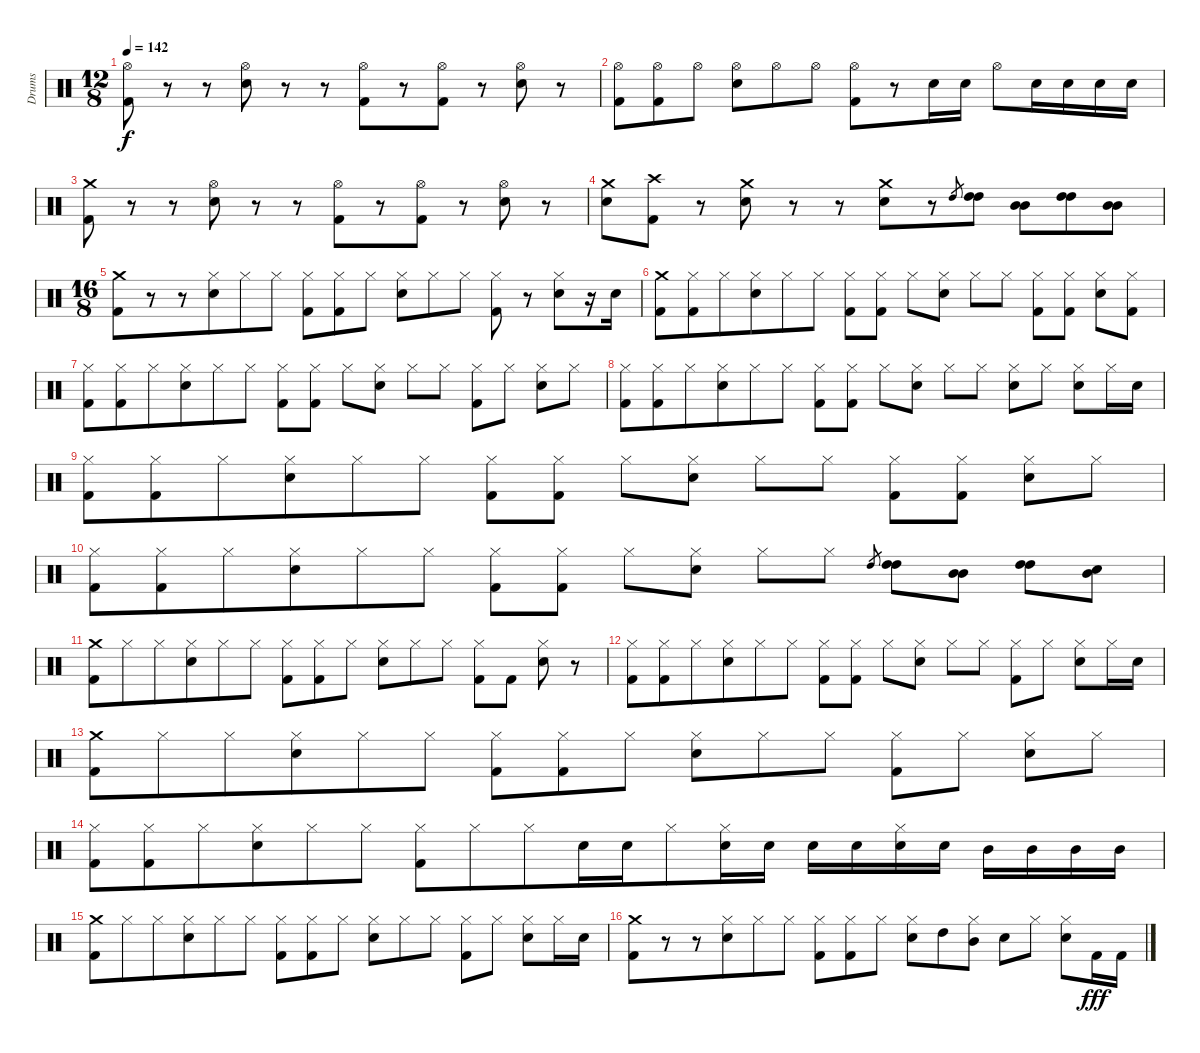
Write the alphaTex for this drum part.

\track ("Drums" "Drums") {instrument percussion}
\staff {score}
\articulation defaults
\ts (12 8)
\tempo 142
\clef neutral
\ks c
("Hi-Hat (open)" "Kick (hit) 2").8{dy f} r.8 r.8 ("Hi-Hat (open)" "Electric Snare (hit)").8 r.8 r.8 ("Hi-Hat (open)" "Kick (hit) 2").8{beam merge} r.8{beam split} ("Hi-Hat (open)" "Kick (hit) 2").8 r.8 ("Hi-Hat (open)" "Electric Snare (hit)").8 r.8 |
("Hi-Hat (open)" "Kick (hit) 2").8 ("Hi-Hat (open)" "Kick (hit) 2").8 "Hi-Hat (open)".8 ("Hi-Hat (open)" "Electric Snare (hit)").8 "Hi-Hat (open)".8 "Hi-Hat (open)".8 ("Hi-Hat (open)" "Kick (hit) 2").8{beam merge} r.8 "Electric Snare (hit)".16 "Electric Snare (hit)".16 "Hi-Hat (open)".8 "Electric Snare (hit)".16 "Electric Snare (hit)".16 "Electric Snare (hit)".16 "Electric Snare (hit)".16 |
("Crash medium (hit)" "Kick (hit) 2").8 r.8 r.8 ("Hi-Hat (open)" "Electric Snare (hit)").8 r.8 r.8 ("Hi-Hat (open)" "Kick (hit) 2").8{beam merge} r.8{beam split} ("Hi-Hat (open)" "Kick (hit) 2").8 r.8 ("Hi-Hat (open)" "Electric Snare (hit)").8 r.8 |
("Crash medium (hit)" "Electric Snare (hit)").8 ("Crash high (hit)" "Kick (hit) 2").8 r.8 ("Crash medium (hit)" "Electric Snare (hit)").8 r.8 r.8 ("Crash medium (hit)" "Electric Snare (hit)").8{beam merge} r.8 "High Tom (hit)".8{gr beam split} ("High Tom (hit)" "High Tom (hit)").8 ("Mid Tom (hit)" "Mid Tom (hit)").8 ("High Tom (hit)" "High Tom (hit)").8 ("Mid Tom (hit)" "Mid Tom (hit)").8 |
\ts (16 8)
("Crash medium (hit)" "Kick (hit) 2").8{beam merge} r.8{beam merge} r.8 ("Hi-Hat (closed)" "Electric Snare (hit)").8{beam merge} "Hi-Hat (closed)".8{beam merge} "Hi-Hat (closed)".8 ("Hi-Hat (closed)" "Kick (hit) 2").8{beam merge} ("Hi-Hat (closed)" "Kick (hit) 2").8{beam merge} "Hi-Hat (closed)".8{beam split} ("Hi-Hat (closed)" "Electric Snare (hit)").8{beam merge} "Hi-Hat (closed)".8{beam merge} "Hi-Hat (closed)".8 ("Hi-Hat (closed)" "Kick (hit) 2").8 r.8 ("Hi-Hat (closed)" "Electric Snare (hit)").8 r.16 "Electric Snare (hit)".16 |
("Crash medium (hit)" "Kick (hit) 2").8{beam merge} ("Hi-Hat (closed)" "Kick (hit) 2").8{beam merge} "Hi-Hat (closed)".8 ("Hi-Hat (closed)" "Electric Snare (hit)").8{beam merge} "Hi-Hat (closed)".8{beam merge} "Hi-Hat (closed)".8 ("Hi-Hat (closed)" "Kick (hit) 2").8{beam merge} ("Hi-Hat (closed)" "Kick (hit) 2").8{beam split} "Hi-Hat (closed)".8{beam merge} ("Hi-Hat (closed)" "Electric Snare (hit)").8 "Hi-Hat (closed)".8 "Hi-Hat (closed)".8 ("Hi-Hat (closed)" "Kick (hit) 2").8 ("Hi-Hat (closed)" "Kick (hit) 2").8 ("Hi-Hat (closed)" "Electric Snare (hit)").8 ("Hi-Hat (closed)" "Kick (hit) 2").8 |
("Hi-Hat (closed)" "Kick (hit) 2").8{beam merge} ("Hi-Hat (closed)" "Kick (hit) 2").8{beam merge} "Hi-Hat (closed)".8 ("Hi-Hat (closed)" "Electric Snare (hit)").8{beam merge} "Hi-Hat (closed)".8{beam merge} "Hi-Hat (closed)".8 ("Hi-Hat (closed)" "Kick (hit) 2").8{beam merge} ("Hi-Hat (closed)" "Kick (hit) 2").8{beam split} "Hi-Hat (closed)".8{beam merge} ("Hi-Hat (closed)" "Electric Snare (hit)").8 "Hi-Hat (closed)".8 "Hi-Hat (closed)".8 ("Hi-Hat (closed)" "Kick (hit) 2").8 "Hi-Hat (closed)".8 ("Hi-Hat (closed)" "Electric Snare (hit)").8 "Hi-Hat (closed)".8 |
("Hi-Hat (closed)" "Kick (hit) 2").8{beam merge} ("Hi-Hat (closed)" "Kick (hit) 2").8{beam merge} "Hi-Hat (closed)".8 ("Hi-Hat (closed)" "Electric Snare (hit)").8{beam merge} "Hi-Hat (closed)".8{beam merge} "Hi-Hat (closed)".8 ("Hi-Hat (closed)" "Kick (hit) 2").8{beam merge} ("Hi-Hat (closed)" "Kick (hit) 2").8{beam split} "Hi-Hat (closed)".8{beam merge} ("Hi-Hat (closed)" "Electric Snare (hit)").8 "Hi-Hat (closed)".8 "Hi-Hat (closed)".8 ("Hi-Hat (closed)" "Electric Snare (hit)").8 "Hi-Hat (closed)".8 ("Hi-Hat (closed)" "Electric Snare (hit)").8 "Hi-Hat (closed)".16 "Electric Snare (hit)".16 |
("Hi-Hat (closed)" "Kick (hit) 2").8{beam merge} ("Hi-Hat (closed)" "Kick (hit) 2").8{beam merge} "Hi-Hat (closed)".8 ("Hi-Hat (closed)" "Electric Snare (hit)").8{beam merge} "Hi-Hat (closed)".8{beam merge} "Hi-Hat (closed)".8 ("Hi-Hat (closed)" "Kick (hit) 2").8{beam merge} ("Hi-Hat (closed)" "Kick (hit) 2").8{beam split} "Hi-Hat (closed)".8{beam merge} ("Hi-Hat (closed)" "Electric Snare (hit)").8 "Hi-Hat (closed)".8 "Hi-Hat (closed)".8 ("Hi-Hat (closed)" "Kick (hit) 2").8 ("Hi-Hat (closed)" "Kick (hit) 2").8 ("Hi-Hat (closed)" "Electric Snare (hit)").8 "Hi-Hat (closed)".8 |
("Hi-Hat (closed)" "Kick (hit) 2").8{beam merge} ("Hi-Hat (closed)" "Kick (hit) 2").8{beam merge} "Hi-Hat (closed)".8 ("Hi-Hat (closed)" "Electric Snare (hit)").8{beam merge} "Hi-Hat (closed)".8{beam merge} "Hi-Hat (closed)".8 ("Hi-Hat (closed)" "Kick (hit) 2").8{beam merge} ("Hi-Hat (closed)" "Kick (hit) 2").8{beam split} "Hi-Hat (closed)".8{beam merge} ("Hi-Hat (closed)" "Electric Snare (hit)").8 "Hi-Hat (closed)".8 "Hi-Hat (closed)".8 "High Tom (hit)".8{gr beam split} ("High Tom (hit)" "High Tom (hit)").8 ("Mid Tom (hit)" "Mid Tom (hit)").8 ("High Tom (hit)" "High Tom (hit)").8 ("Electric Snare (hit)" "Mid Tom (hit)").8 |
("Crash medium (hit)" "Kick (hit) 2").8{beam merge} "Hi-Hat (closed)".8{beam merge} "Hi-Hat (closed)".8 ("Hi-Hat (closed)" "Electric Snare (hit)").8{beam merge} "Hi-Hat (closed)".8{beam merge} "Hi-Hat (closed)".8 ("Hi-Hat (closed)" "Kick (hit) 2").8{beam merge} ("Hi-Hat (closed)" "Kick (hit) 2").8{beam merge} "Hi-Hat (closed)".8{beam split} ("Hi-Hat (closed)" "Electric Snare (hit)").8{beam merge} "Hi-Hat (closed)".8{beam merge} "Hi-Hat (closed)".8 ("Hi-Hat (closed)" "Kick (hit) 2").8 "Kick (hit) 2".8 ("Hi-Hat (closed)" "Electric Snare (hit)").8 r.8 |
("Hi-Hat (closed)" "Kick (hit) 2").8{beam merge} ("Hi-Hat (closed)" "Kick (hit) 2").8{beam merge} "Hi-Hat (closed)".8 ("Hi-Hat (closed)" "Electric Snare (hit)").8{beam merge} "Hi-Hat (closed)".8{beam merge} "Hi-Hat (closed)".8 ("Hi-Hat (closed)" "Kick (hit) 2").8{beam merge} ("Hi-Hat (closed)" "Kick (hit) 2").8{beam split} "Hi-Hat (closed)".8{beam merge} ("Hi-Hat (closed)" "Electric Snare (hit)").8 "Hi-Hat (closed)".8 "Hi-Hat (closed)".8 ("Hi-Hat (closed)" "Kick (hit) 2").8 "Hi-Hat (closed)".8 ("Hi-Hat (closed)" "Electric Snare (hit)").8 "Hi-Hat (closed)".16 "Electric Snare (hit)".16 |
("Crash medium (hit)" "Kick (hit) 2").8{beam merge} "Hi-Hat (closed)".8{beam merge} "Hi-Hat (closed)".8 ("Hi-Hat (closed)" "Electric Snare (hit)").8{beam merge} "Hi-Hat (closed)".8{beam merge} "Hi-Hat (closed)".8 ("Hi-Hat (closed)" "Kick (hit) 2").8{beam merge} ("Hi-Hat (closed)" "Kick (hit) 2").8{beam merge} "Hi-Hat (closed)".8{beam split} ("Hi-Hat (closed)" "Electric Snare (hit)").8{beam merge} "Hi-Hat (closed)".8{beam merge} "Hi-Hat (closed)".8 ("Hi-Hat (closed)" "Kick (hit) 2").8 "Hi-Hat (closed)".8 ("Hi-Hat (closed)" "Electric Snare (hit)").8 "Hi-Hat (closed)".8 |
("Hi-Hat (closed)" "Kick (hit) 2").8{beam merge} ("Hi-Hat (closed)" "Kick (hit) 2").8{beam merge} "Hi-Hat (closed)".8 ("Hi-Hat (closed)" "Electric Snare (hit)").8{beam merge} "Hi-Hat (closed)".8{beam merge} "Hi-Hat (closed)".8 ("Hi-Hat (closed)" "Kick (hit) 2").8{beam merge} "Hi-Hat (closed)".8{beam merge} "Hi-Hat (closed)".8 "Electric Snare (hit)".16 "Electric Snare (hit)".16{beam merge} "Hi-Hat (closed)".8{beam merge} ("Hi-Hat (closed)" "Electric Snare (hit)").16 "Electric Snare (hit)".16 "Electric Snare (hit)".16 "Electric Snare (hit)".16 ("Hi-Hat (closed)" "Electric Snare (hit)").16 "Electric Snare (hit)".16 "Mid Tom (hit)".16 "Mid Tom (hit)".16 "Mid Tom (hit)".16 "Mid Tom (hit)".16 |
("Crash medium (hit)" "Kick (hit) 2").8{beam merge} "Hi-Hat (closed)".8{beam merge} "Hi-Hat (closed)".8 ("Hi-Hat (closed)" "Electric Snare (hit)").8{beam merge} "Hi-Hat (closed)".8{beam merge} "Hi-Hat (closed)".8 ("Hi-Hat (closed)" "Kick (hit) 2").8{beam merge} ("Hi-Hat (closed)" "Kick (hit) 2").8{beam merge} "Hi-Hat (closed)".8{beam split} ("Hi-Hat (closed)" "Electric Snare (hit)").8{beam merge} "Hi-Hat (closed)".8{beam merge} "Hi-Hat (closed)".8 ("Hi-Hat (closed)" "Kick (hit) 2").8 "Hi-Hat (closed)".8 ("Hi-Hat (closed)" "Electric Snare (hit)").8 "Hi-Hat (closed)".16 "Electric Snare (hit)".16 |
("Crash medium (hit)" "Kick (hit) 2").8{beam merge} r.8{beam merge} r.8 ("Hi-Hat (closed)" "Electric Snare (hit)").8{beam merge} "Hi-Hat (closed)".8{beam merge} "Hi-Hat (closed)".8 ("Hi-Hat (closed)" "Kick (hit) 2").8{beam merge} ("Hi-Hat (closed)" "Kick (hit) 2").8{beam merge} "Hi-Hat (closed)".8{beam split} ("Hi-Hat (closed)" "Electric Snare (hit)").8{beam merge} "High Tom (hit)".8{beam merge} ("Hi-Hat (closed)" "Mid Tom (hit)").8 "Electric Snare (hit)".8 "Hi-Hat (closed)".8 ("Hi-Hat (closed)" "Electric Snare (hit)").8 "Kick (hit) 2".16{dy fff} "Kick (hit) 2".16
